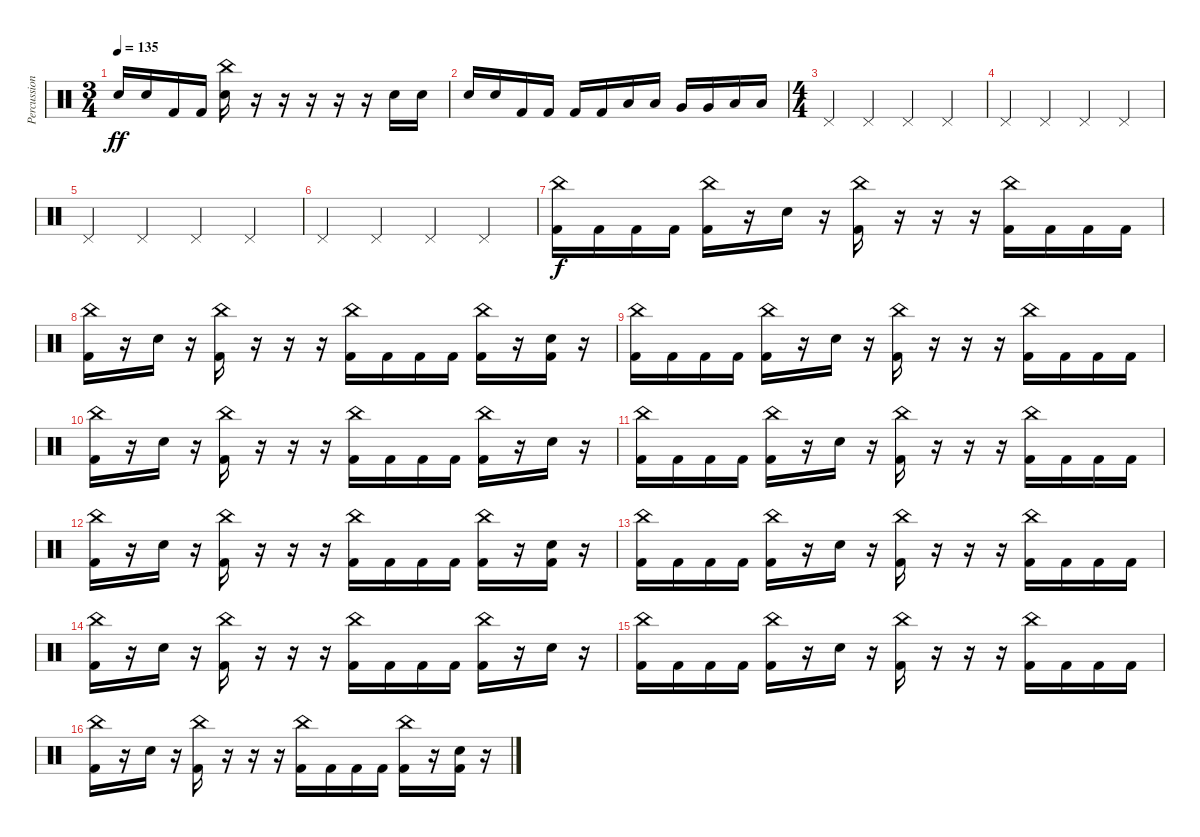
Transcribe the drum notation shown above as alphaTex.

\track ("Percussion" "Percussion") {instrument percussion}
\staff {score}
\articulation defaults
\ts (3 4)
\tempo 135
\clef neutral
\ks c "Snare (hit) 2".16{dy ff} "Snare (hit) 2".16 "Kick (hit) 2".16 "Kick (hit) 2".16
("China (hit)" "Snare (hit) 2").16 r.16 r.16 r.16 r.16 r.16 "Snare (hit) 2".16 "Snare (hit) 2".16 |
"Snare (hit) 2".16 "Snare (hit) 2".16 "Kick (hit) 2".16 "Kick (hit) 2".16 "Kick (hit) 2".16 "Kick (hit) 2".16 "Low Tom (hit)".16 "Low Tom (hit)".16 "Very Low Tom (hit)".16 "Very Low Tom (hit)".16 "Low Floor Tom (hit)".16 "Low Floor Tom (hit)".16 |
\ts (4 4)
"Pedal Hi-Hat (hit)".4 "Pedal Hi-Hat (hit)".4 "Pedal Hi-Hat (hit)".4 "Pedal Hi-Hat (hit)".4 |
"Pedal Hi-Hat (hit)".4 "Pedal Hi-Hat (hit)".4 "Pedal Hi-Hat (hit)".4 "Pedal Hi-Hat (hit)".4 |
"Pedal Hi-Hat (hit)".4 "Pedal Hi-Hat (hit)".4 "Pedal Hi-Hat (hit)".4 "Pedal Hi-Hat (hit)".4 |
"Pedal Hi-Hat (hit)".4 "Pedal Hi-Hat (hit)".4 "Pedal Hi-Hat (hit)".4 "Pedal Hi-Hat (hit)".4 |
("China (hit)" "Kick (hit) 2").16{dy f} "Kick (hit) 2".16 "Kick (hit) 2".16 "Kick (hit) 2".16 ("China (hit)" "Kick (hit) 2").16 r.16 "Snare (hit) 2".16 r.16 ("China (hit)" "Kick (hit) 2").16 r.16 r.16 r.16 ("China (hit)" "Kick (hit) 2").16 "Kick (hit) 2".16 "Kick (hit) 2".16 "Kick (hit) 2".16 |
("China (hit)" "Kick (hit) 2").16 r.16 "Snare (hit) 2".16 r.16 ("China (hit)" "Kick (hit) 2").16 r.16 r.16 r.16 ("China (hit)" "Kick (hit) 2").16 "Kick (hit) 2".16 "Kick (hit) 2".16 "Kick (hit) 2".16 ("China (hit)" "Kick (hit) 2").16 r.16 ("Snare (hit) 2" "Kick (hit) 2").16 r.16 |
("China (hit)" "Kick (hit) 2").16 "Kick (hit) 2".16 "Kick (hit) 2".16 "Kick (hit) 2".16 ("China (hit)" "Kick (hit) 2").16 r.16 "Snare (hit) 2".16 r.16 ("China (hit)" "Kick (hit) 2").16 r.16 r.16 r.16 ("China (hit)" "Kick (hit) 2").16 "Kick (hit) 2".16 "Kick (hit) 2".16 "Kick (hit) 2".16 |
("China (hit)" "Kick (hit) 2").16 r.16 "Snare (hit) 2".16 r.16 ("China (hit)" "Kick (hit) 2").16 r.16 r.16 r.16 ("China (hit)" "Kick (hit) 2").16 "Kick (hit) 2".16 "Kick (hit) 2".16 "Kick (hit) 2".16 ("China (hit)" "Kick (hit) 2").16 r.16 "Snare (hit) 2".16 r.16 |
("China (hit)" "Kick (hit) 2").16 "Kick (hit) 2".16 "Kick (hit) 2".16 "Kick (hit) 2".16 ("China (hit)" "Kick (hit) 2").16 r.16 "Snare (hit) 2".16 r.16 ("China (hit)" "Kick (hit) 2").16 r.16 r.16 r.16 ("China (hit)" "Kick (hit) 2").16 "Kick (hit) 2".16 "Kick (hit) 2".16 "Kick (hit) 2".16 |
("China (hit)" "Kick (hit) 2").16 r.16 "Snare (hit) 2".16 r.16 ("China (hit)" "Kick (hit) 2").16 r.16 r.16 r.16 ("China (hit)" "Kick (hit) 2").16 "Kick (hit) 2".16 "Kick (hit) 2".16 "Kick (hit) 2".16 ("China (hit)" "Kick (hit) 2").16 r.16 ("Snare (hit) 2" "Kick (hit) 2").16 r.16 |
("China (hit)" "Kick (hit) 2").16 "Kick (hit) 2".16 "Kick (hit) 2".16 "Kick (hit) 2".16 ("China (hit)" "Kick (hit) 2").16 r.16 "Snare (hit) 2".16 r.16 ("China (hit)" "Kick (hit) 2").16 r.16 r.16 r.16 ("China (hit)" "Kick (hit) 2").16 "Kick (hit) 2".16 "Kick (hit) 2".16 "Kick (hit) 2".16 |
("China (hit)" "Kick (hit) 2").16 r.16 "Snare (hit) 2".16 r.16 ("China (hit)" "Kick (hit) 2").16 r.16 r.16 r.16 ("China (hit)" "Kick (hit) 2").16 "Kick (hit) 2".16 "Kick (hit) 2".16 "Kick (hit) 2".16 ("China (hit)" "Kick (hit) 2").16 r.16 "Snare (hit) 2".16 r.16 |
("China (hit)" "Kick (hit) 2").16 "Kick (hit) 2".16 "Kick (hit) 2".16 "Kick (hit) 2".16 ("China (hit)" "Kick (hit) 2").16 r.16 "Snare (hit) 2".16 r.16 ("China (hit)" "Kick (hit) 2").16 r.16 r.16 r.16 ("China (hit)" "Kick (hit) 2").16 "Kick (hit) 2".16 "Kick (hit) 2".16 "Kick (hit) 2".16 |
("China (hit)" "Kick (hit) 2").16 r.16 "Snare (hit) 2".16 r.16 ("China (hit)" "Kick (hit) 2").16 r.16 r.16 r.16 ("China (hit)" "Kick (hit) 2").16 "Kick (hit) 2".16 "Kick (hit) 2".16 "Kick (hit) 2".16 ("China (hit)" "Kick (hit) 2").16 r.16 ("Snare (hit) 2" "Kick (hit) 2").16 r.16
